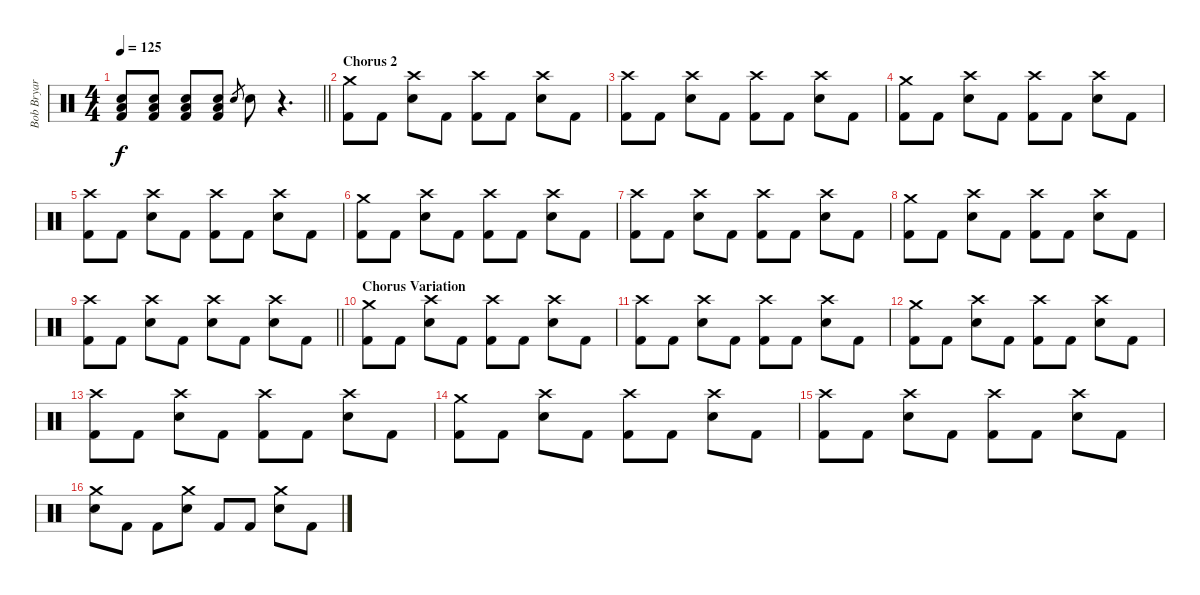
\track ("Bob Bryar" "Bob Bryar") {instrument percussion}
\staff {score}
\articulation defaults
\ts (4 4)
\tempo 125
\clef neutral
\barLineRight lightlight
\ks c
("Electric Snare (hit)" "Low Floor Tom (hit)" "Kick (hit) 2").8{dy f} ("Electric Snare (hit)" "Low Floor Tom (hit)" "Kick (hit) 2").8 ("Electric Snare (hit)" "Low Floor Tom (hit)" "Kick (hit) 2").8 ("Electric Snare (hit)" "Low Floor Tom (hit)" "Kick (hit) 2").8 "Electric Snare (hit)".8{gr} "Electric Snare (hit)".8 r.4{d} |
\section ("" "Chorus 2")
("Crash medium (hit)" "Kick (hit) 2").8 "Kick (hit) 2".8 ("Crash high (hit)" "Electric Snare (hit)").8 "Kick (hit) 2".8 ("Crash high (hit)" "Kick (hit) 2").8 "Kick (hit) 2".8 ("Crash high (hit)" "Electric Snare (hit)").8 "Kick (hit) 2".8 |
("Crash high (hit)" "Kick (hit) 2").8 "Kick (hit) 2".8 ("Crash high (hit)" "Electric Snare (hit)").8 "Kick (hit) 2".8 ("Crash high (hit)" "Kick (hit) 2").8 "Kick (hit) 2".8 ("Crash high (hit)" "Electric Snare (hit)").8 "Kick (hit) 2".8 |
("Crash medium (hit)" "Kick (hit) 2").8 "Kick (hit) 2".8 ("Crash high (hit)" "Electric Snare (hit)").8 "Kick (hit) 2".8 ("Crash high (hit)" "Kick (hit) 2").8 "Kick (hit) 2".8 ("Crash high (hit)" "Electric Snare (hit)").8 "Kick (hit) 2".8 |
("Crash high (hit)" "Kick (hit) 2").8 "Kick (hit) 2".8 ("Crash high (hit)" "Electric Snare (hit)").8 "Kick (hit) 2".8 ("Crash high (hit)" "Kick (hit) 2").8 "Kick (hit) 2".8 ("Crash high (hit)" "Electric Snare (hit)").8 "Kick (hit) 2".8 |
("Crash medium (hit)" "Kick (hit) 2").8 "Kick (hit) 2".8 ("Crash high (hit)" "Electric Snare (hit)").8 "Kick (hit) 2".8 ("Crash high (hit)" "Kick (hit) 2").8 "Kick (hit) 2".8 ("Crash high (hit)" "Electric Snare (hit)").8 "Kick (hit) 2".8 |
("Crash high (hit)" "Kick (hit) 2").8 "Kick (hit) 2".8 ("Crash high (hit)" "Electric Snare (hit)").8 "Kick (hit) 2".8 ("Crash high (hit)" "Kick (hit) 2").8 "Kick (hit) 2".8 ("Crash high (hit)" "Electric Snare (hit)").8 "Kick (hit) 2".8 |
("Crash medium (hit)" "Kick (hit) 2").8 "Kick (hit) 2".8 ("Crash high (hit)" "Electric Snare (hit)").8 "Kick (hit) 2".8 ("Crash high (hit)" "Kick (hit) 2").8 "Kick (hit) 2".8 ("Crash high (hit)" "Electric Snare (hit)").8 "Kick (hit) 2".8 |
\barLineRight lightlight
("Crash high (hit)" "Kick (hit) 2").8 "Kick (hit) 2".8 ("Crash high (hit)" "Electric Snare (hit)").8 "Kick (hit) 2".8 ("Crash high (hit)" "Electric Snare (hit)").8 "Kick (hit) 2".8 ("Crash high (hit)" "Electric Snare (hit)").8 "Kick (hit) 2".8 |
\section ("" "Chorus Variation")
("Crash medium (hit)" "Kick (hit) 2").8 "Kick (hit) 2".8 ("Crash high (hit)" "Electric Snare (hit)").8 "Kick (hit) 2".8 ("Crash high (hit)" "Kick (hit) 2").8 "Kick (hit) 2".8 ("Crash high (hit)" "Electric Snare (hit)").8 "Kick (hit) 2".8 |
("Crash high (hit)" "Kick (hit) 2").8 "Kick (hit) 2".8 ("Crash high (hit)" "Electric Snare (hit)").8 "Kick (hit) 2".8 ("Crash high (hit)" "Kick (hit) 2").8 "Kick (hit) 2".8 ("Crash high (hit)" "Electric Snare (hit)").8 "Kick (hit) 2".8 |
("Crash medium (hit)" "Kick (hit) 2").8 "Kick (hit) 2".8 ("Crash high (hit)" "Electric Snare (hit)").8 "Kick (hit) 2".8 ("Crash high (hit)" "Kick (hit) 2").8 "Kick (hit) 2".8 ("Crash high (hit)" "Electric Snare (hit)").8 "Kick (hit) 2".8 |
("Crash high (hit)" "Kick (hit) 2").8 "Kick (hit) 2".8 ("Crash high (hit)" "Electric Snare (hit)").8 "Kick (hit) 2".8 ("Crash high (hit)" "Kick (hit) 2").8 "Kick (hit) 2".8 ("Crash high (hit)" "Electric Snare (hit)").8 "Kick (hit) 2".8 |
("Crash medium (hit)" "Kick (hit) 2").8 "Kick (hit) 2".8 ("Crash high (hit)" "Electric Snare (hit)").8 "Kick (hit) 2".8 ("Crash high (hit)" "Kick (hit) 2").8 "Kick (hit) 2".8 ("Crash high (hit)" "Electric Snare (hit)").8 "Kick (hit) 2".8 |
("Crash high (hit)" "Kick (hit) 2").8 "Kick (hit) 2".8 ("Crash high (hit)" "Electric Snare (hit)").8 "Kick (hit) 2".8 ("Crash high (hit)" "Kick (hit) 2").8 "Kick (hit) 2".8 ("Crash high (hit)" "Electric Snare (hit)").8 "Kick (hit) 2".8 |
("Crash medium (hit)" "Electric Snare (hit)").8 "Kick (hit) 2".8 "Kick (hit) 2".8 ("Crash medium (hit)" "Electric Snare (hit)").8 "Kick (hit) 2".8 "Kick (hit) 2".8 ("Crash medium (hit)" "Electric Snare (hit)").8 "Kick (hit) 2".8
